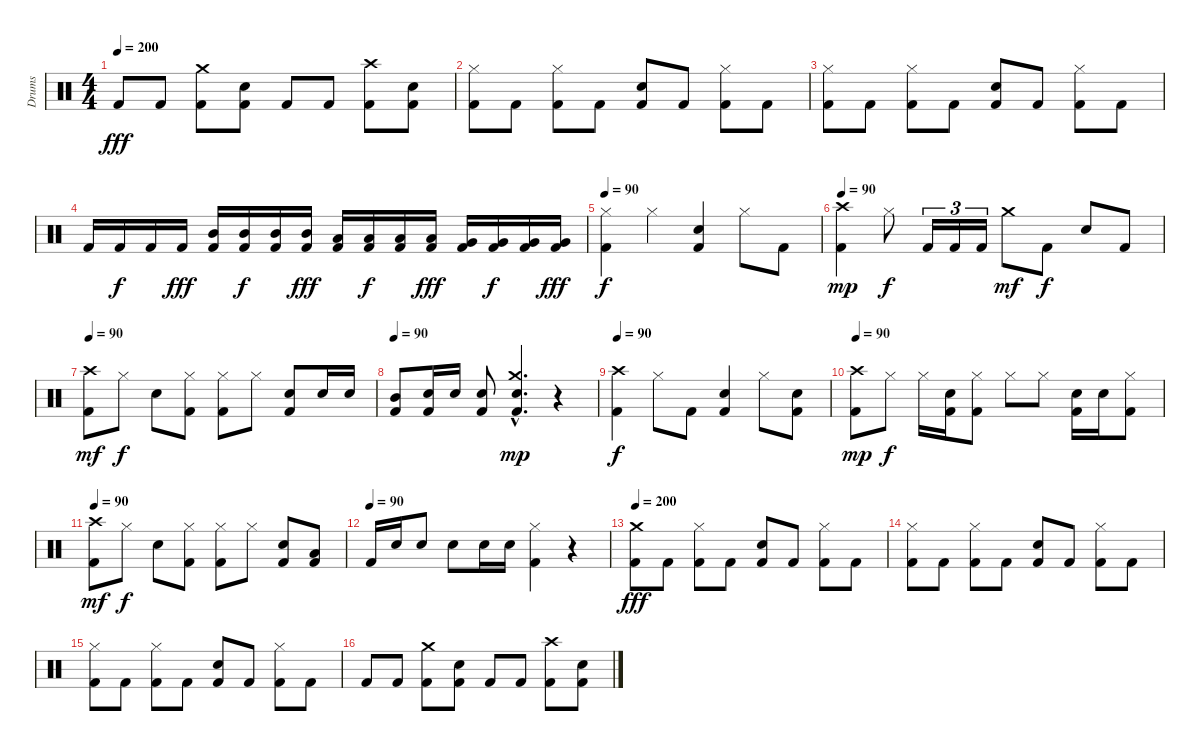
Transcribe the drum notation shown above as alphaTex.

\track ("Drums" "Drums") {instrument percussion}
\staff {score}
\articulation defaults
\ts (4 4)
\tempo 200
\clef neutral
\ks c "Kick (hit) 2".8{dy fff} "Kick (hit) 2".8
("Crash medium (hit)" "Kick (hit) 2").8 ("Electric Snare (hit)" "Kick (hit) 2").8 "Kick (hit) 2".8 "Kick (hit) 2".8 ("Crash high (hit)" "Kick (hit) 2").8 ("Electric Snare (hit)" "Kick (hit) 2").8 |
("Hi-Hat (closed)" "Kick (hit) 2").8 "Kick (hit) 2".8 ("Hi-Hat (closed)" "Kick (hit) 2").8 "Kick (hit) 2".8 ("Electric Snare (hit)" "Kick (hit) 2").8 "Kick (hit) 2".8 ("Hi-Hat (closed)" "Kick (hit) 2").8 "Kick (hit) 2".8 |
("Hi-Hat (closed)" "Kick (hit) 2").8 "Kick (hit) 2".8 ("Hi-Hat (closed)" "Kick (hit) 2").8 "Kick (hit) 2".8 ("Electric Snare (hit)" "Kick (hit) 2").8 "Kick (hit) 2".8 ("Hi-Hat (closed)" "Kick (hit) 2").8 "Kick (hit) 2".8 |
"Kick (hit) 2".16 "Kick (hit) 2".16{dy f} "Kick (hit) 2".16 "Kick (hit) 2".16{dy fff} ("Mid Tom (hit)" "Kick (hit) 2").16 ("Mid Tom (hit)" "Kick (hit) 2").16{dy f} ("Mid Tom (hit)" "Kick (hit) 2").16 ("Mid Tom (hit)" "Kick (hit) 2").16{dy fff} ("Low Tom (hit)" "Kick (hit) 2").16 ("Low Tom (hit)" "Kick (hit) 2").16{dy f} ("Low Tom (hit)" "Kick (hit) 2").16 ("Low Tom (hit)" "Kick (hit) 2").16{dy fff} ("Very Low Tom (hit)" "Kick (hit) 2").16 ("Very Low Tom (hit)" "Kick (hit) 2").16{dy f} ("Very Low Tom (hit)" "Kick (hit) 2").16 ("Very Low Tom (hit)" "Kick (hit) 2").16{dy fff} |
\tempo 90
("Hi-Hat (closed)" "Kick (hit) 2").4{dy f volume 13} "Hi-Hat (closed)".4 ("Electric Snare (hit)" "Kick (hit) 2").4 "Hi-Hat (closed)".8 "Kick (hit) 2".8 |
\tempo 90
("Crash high (hit)" "Kick (hit) 2").4{dy mp} "Hi-Hat (closed)".8{dy f} "Kick (hit) 2".16{tu (3 2)} "Kick (hit) 2".16{tu (3 2)} "Kick (hit) 2".16{tu (3 2)} "Crash medium (hit)".8{dy mf} "Kick (hit) 2".8{dy f} "Electric Snare (hit)".8 "Kick (hit) 2".8 |
\tempo 90
("Crash high (hit)" "Kick (hit) 2").8{dy mf} "Hi-Hat (closed)".8{dy f} "Electric Snare (hit)".8 ("Hi-Hat (closed)" "Kick (hit) 2").8 ("Hi-Hat (closed)" "Kick (hit) 2").8 "Hi-Hat (closed)".8 ("Electric Snare (hit)" "Kick (hit) 2").8 "Electric Snare (hit)".16 "Electric Snare (hit)".16 |
\tempo 90
("Mid Tom (hit)" "Kick (hit) 2").8 ("Electric Snare (hit)" "Kick (hit) 2").16 "Electric Snare (hit)".16 ("Electric Snare (hit)" "Kick (hit) 2").8 ("Crash medium (hit)"{hac} "Electric Snare (hit)"{hac} "Kick (hit) 2"{hac}).4{d dy mp} r.4 |
\tempo 90
("Crash high (hit)" "Kick (hit) 2").4{dy f} "Hi-Hat (closed)".8 "Kick (hit) 2".8 ("Electric Snare (hit)" "Kick (hit) 2").4 "Hi-Hat (closed)".8 ("Electric Snare (hit)" "Kick (hit) 2").8 |
\tempo 90
("Crash high (hit)" "Kick (hit) 2").8{dy mp} "Hi-Hat (closed)".8{dy f} "Hi-Hat (closed)".16 ("Electric Snare (hit)" "Kick (hit) 2").16 ("Hi-Hat (closed)" "Kick (hit) 2").8 "Hi-Hat (closed)".8 "Hi-Hat (closed)".8 ("Electric Snare (hit)" "Kick (hit) 2").16 "Electric Snare (hit)".16 ("Hi-Hat (closed)" "Kick (hit) 2").8 |
\tempo 90
("Crash high (hit)" "Kick (hit) 2").8{dy mf} "Hi-Hat (closed)".8{dy f} "Electric Snare (hit)".8 ("Hi-Hat (closed)" "Kick (hit) 2").8 ("Hi-Hat (closed)" "Kick (hit) 2").8 "Hi-Hat (closed)".8 ("Electric Snare (hit)" "Kick (hit) 2").8 ("Low Tom (hit)" "Kick (hit) 2").8 |
\tempo (90)
"Kick (hit) 2".16 "Electric Snare (hit)".16 "Electric Snare (hit)".8 "Electric Snare (hit)".8 "Electric Snare (hit)".16 "Electric Snare (hit)".16 ("Hi-Hat (closed)" "Kick (hit) 2").4 r.4 |
\tempo 200
("Crash medium (hit)" "Kick (hit) 2").8{dy fff} "Kick (hit) 2".8 ("Hi-Hat (closed)" "Kick (hit) 2").8 "Kick (hit) 2".8 ("Electric Snare (hit)" "Kick (hit) 2").8 "Kick (hit) 2".8 ("Hi-Hat (closed)" "Kick (hit) 2").8 "Kick (hit) 2".8 |
("Hi-Hat (closed)" "Kick (hit) 2").8 "Kick (hit) 2".8 ("Hi-Hat (closed)" "Kick (hit) 2").8 "Kick (hit) 2".8 ("Electric Snare (hit)" "Kick (hit) 2").8 "Kick (hit) 2".8 ("Hi-Hat (closed)" "Kick (hit) 2").8 "Kick (hit) 2".8 |
("Hi-Hat (closed)" "Kick (hit) 2").8 "Kick (hit) 2".8 ("Hi-Hat (closed)" "Kick (hit) 2").8 "Kick (hit) 2".8 ("Electric Snare (hit)" "Kick (hit) 2").8 "Kick (hit) 2".8 ("Hi-Hat (closed)" "Kick (hit) 2").8 "Kick (hit) 2".8 |
"Kick (hit) 2".8 "Kick (hit) 2".8 ("Crash medium (hit)" "Kick (hit) 2").8 ("Electric Snare (hit)" "Kick (hit) 2").8 "Kick (hit) 2".8 "Kick (hit) 2".8 ("Crash high (hit)" "Kick (hit) 2").8 ("Electric Snare (hit)" "Kick (hit) 2").8
